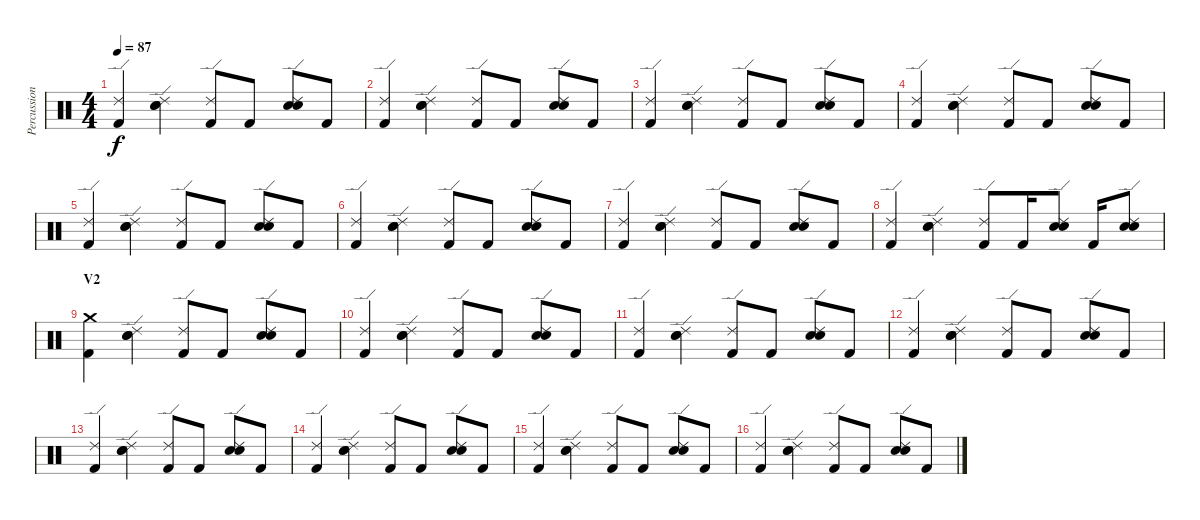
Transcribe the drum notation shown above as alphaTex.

\track ("Percussion" "Percussion") {instrument percussion}
\staff {score}
\articulation defaults
\ts (4 4)
\tempo 87
\clef neutral
\ks c
("Ride (edge) 2" "Kick (hit) 2").4{dy f} ("Ride (edge) 2" "Hand Clap (hit)" "Snare (hit) 2").4 ("Ride (edge) 2" "Kick (hit) 2").8 "Kick (hit) 2".8 ("Ride (edge) 2" "Hand Clap (hit)" "Snare (hit) 2").8 "Kick (hit) 2".8 |
("Ride (edge) 2" "Kick (hit) 2").4 ("Ride (edge) 2" "Hand Clap (hit)" "Snare (hit) 2").4 ("Ride (edge) 2" "Kick (hit) 2").8 "Kick (hit) 2".8 ("Ride (edge) 2" "Hand Clap (hit)" "Snare (hit) 2").8 "Kick (hit) 2".8 |
("Ride (edge) 2" "Kick (hit) 2").4 ("Ride (edge) 2" "Hand Clap (hit)" "Snare (hit) 2").4 ("Ride (edge) 2" "Kick (hit) 2").8 "Kick (hit) 2".8 ("Ride (edge) 2" "Hand Clap (hit)" "Snare (hit) 2").8 "Kick (hit) 2".8 |
("Ride (edge) 2" "Kick (hit) 2").4 ("Ride (edge) 2" "Hand Clap (hit)" "Snare (hit) 2").4 ("Ride (edge) 2" "Kick (hit) 2").8 "Kick (hit) 2".8 ("Ride (edge) 2" "Hand Clap (hit)" "Snare (hit) 2").8 "Kick (hit) 2".8 |
("Ride (edge) 2" "Kick (hit) 2").4 ("Ride (edge) 2" "Hand Clap (hit)" "Snare (hit) 2").4 ("Ride (edge) 2" "Kick (hit) 2").8 "Kick (hit) 2".8 ("Ride (edge) 2" "Hand Clap (hit)" "Snare (hit) 2").8 "Kick (hit) 2".8 |
("Ride (edge) 2" "Kick (hit) 2").4 ("Ride (edge) 2" "Hand Clap (hit)" "Snare (hit) 2").4 ("Ride (edge) 2" "Kick (hit) 2").8 "Kick (hit) 2".8 ("Ride (edge) 2" "Hand Clap (hit)" "Snare (hit) 2").8 "Kick (hit) 2".8 |
("Ride (edge) 2" "Kick (hit) 2").4 ("Ride (edge) 2" "Hand Clap (hit)" "Snare (hit) 2").4 ("Ride (edge) 2" "Kick (hit) 2").8 "Kick (hit) 2".8 ("Ride (edge) 2" "Hand Clap (hit)" "Snare (hit) 2").8 "Kick (hit) 2".8 |
("Ride (edge) 2" "Kick (hit) 2").4 ("Ride (edge) 2" "Hand Clap (hit)" "Snare (hit) 2").4 ("Ride (edge) 2" "Kick (hit) 2").8 "Kick (hit) 2".16 ("Ride (edge) 2" "Hand Clap (hit)" "Snare (hit) 2").8 "Kick (hit) 2".16 ("Ride (edge) 2" "Hand Clap (hit)" "Snare (hit) 2").8 |
\section ("" "V2")
("Crash medium (hit)" "Kick (hit) 2").4 ("Ride (edge) 2" "Hand Clap (hit)" "Snare (hit) 2").4 ("Ride (edge) 2" "Kick (hit) 2").8 "Kick (hit) 2".8 ("Ride (edge) 2" "Hand Clap (hit)" "Snare (hit) 2").8 "Kick (hit) 2".8 |
("Ride (edge) 2" "Kick (hit) 2").4 ("Ride (edge) 2" "Hand Clap (hit)" "Snare (hit) 2").4 ("Ride (edge) 2" "Kick (hit) 2").8 "Kick (hit) 2".8 ("Ride (edge) 2" "Hand Clap (hit)" "Snare (hit) 2").8 "Kick (hit) 2".8 |
("Ride (edge) 2" "Kick (hit) 2").4 ("Ride (edge) 2" "Hand Clap (hit)" "Snare (hit) 2").4 ("Ride (edge) 2" "Kick (hit) 2").8 "Kick (hit) 2".8 ("Ride (edge) 2" "Hand Clap (hit)" "Snare (hit) 2").8 "Kick (hit) 2".8 |
("Ride (edge) 2" "Kick (hit) 2").4 ("Ride (edge) 2" "Hand Clap (hit)" "Snare (hit) 2").4 ("Ride (edge) 2" "Kick (hit) 2").8 "Kick (hit) 2".8 ("Ride (edge) 2" "Hand Clap (hit)" "Snare (hit) 2").8 "Kick (hit) 2".8 |
("Ride (edge) 2" "Kick (hit) 2").4 ("Ride (edge) 2" "Hand Clap (hit)" "Snare (hit) 2").4 ("Ride (edge) 2" "Kick (hit) 2").8 "Kick (hit) 2".8 ("Ride (edge) 2" "Hand Clap (hit)" "Snare (hit) 2").8 "Kick (hit) 2".8 |
("Ride (edge) 2" "Kick (hit) 2").4 ("Ride (edge) 2" "Hand Clap (hit)" "Snare (hit) 2").4 ("Ride (edge) 2" "Kick (hit) 2").8 "Kick (hit) 2".8 ("Ride (edge) 2" "Hand Clap (hit)" "Snare (hit) 2").8 "Kick (hit) 2".8 |
("Ride (edge) 2" "Kick (hit) 2").4 ("Ride (edge) 2" "Hand Clap (hit)" "Snare (hit) 2").4 ("Ride (edge) 2" "Kick (hit) 2").8 "Kick (hit) 2".8 ("Ride (edge) 2" "Hand Clap (hit)" "Snare (hit) 2").8 "Kick (hit) 2".8 |
("Ride (edge) 2" "Kick (hit) 2").4 ("Ride (edge) 2" "Hand Clap (hit)" "Snare (hit) 2").4 ("Ride (edge) 2" "Kick (hit) 2").8 "Kick (hit) 2".8 ("Ride (edge) 2" "Hand Clap (hit)" "Snare (hit) 2").8 "Kick (hit) 2".8
